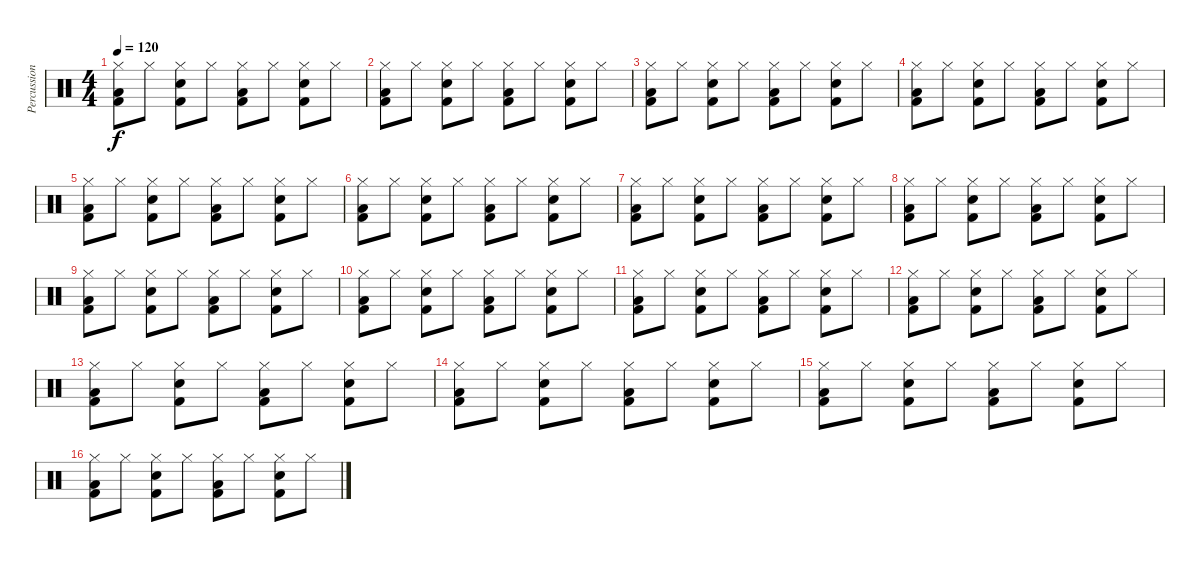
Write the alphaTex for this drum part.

\track ("Percussions" "Percussion") {instrument percussion}
\staff {score}
\articulation defaults
\ts (4 4)
\tempo 120
\clef neutral
\ks c
("Hi-Hat (closed)" "Low Floor Tom (hit)" "Kick (hit) 2").8{dy f} "Hi-Hat (closed)".8 ("Hi-Hat (closed)" "Snare (hit) 2" "Kick (hit) 2").8 "Hi-Hat (closed)".8 ("Hi-Hat (closed)" "Low Floor Tom (hit)" "Kick (hit) 2").8 "Hi-Hat (closed)".8 ("Hi-Hat (closed)" "Snare (hit) 2" "Kick (hit) 2").8 "Hi-Hat (closed)".8 |
("Hi-Hat (closed)" "Low Floor Tom (hit)" "Kick (hit) 2").8 "Hi-Hat (closed)".8 ("Hi-Hat (closed)" "Snare (hit) 2" "Kick (hit) 2").8 "Hi-Hat (closed)".8 ("Hi-Hat (closed)" "Low Floor Tom (hit)" "Kick (hit) 2").8 "Hi-Hat (closed)".8 ("Hi-Hat (closed)" "Snare (hit) 2" "Kick (hit) 2").8 "Hi-Hat (closed)".8 |
("Hi-Hat (closed)" "Low Floor Tom (hit)" "Kick (hit) 2").8 "Hi-Hat (closed)".8 ("Hi-Hat (closed)" "Snare (hit) 2" "Kick (hit) 2").8 "Hi-Hat (closed)".8 ("Hi-Hat (closed)" "Low Floor Tom (hit)" "Kick (hit) 2").8 "Hi-Hat (closed)".8 ("Hi-Hat (closed)" "Snare (hit) 2" "Kick (hit) 2").8 "Hi-Hat (closed)".8 |
("Hi-Hat (closed)" "Low Floor Tom (hit)" "Kick (hit) 2").8 "Hi-Hat (closed)".8 ("Hi-Hat (closed)" "Snare (hit) 2" "Kick (hit) 2").8 "Hi-Hat (closed)".8 ("Hi-Hat (closed)" "Low Floor Tom (hit)" "Kick (hit) 2").8 "Hi-Hat (closed)".8 ("Hi-Hat (closed)" "Snare (hit) 2" "Kick (hit) 2").8 "Hi-Hat (closed)".8 |
("Hi-Hat (closed)" "Low Floor Tom (hit)" "Kick (hit) 2").8 "Hi-Hat (closed)".8 ("Hi-Hat (closed)" "Snare (hit) 2" "Kick (hit) 2").8 "Hi-Hat (closed)".8 ("Hi-Hat (closed)" "Low Floor Tom (hit)" "Kick (hit) 2").8 "Hi-Hat (closed)".8 ("Hi-Hat (closed)" "Snare (hit) 2" "Kick (hit) 2").8 "Hi-Hat (closed)".8 |
("Hi-Hat (closed)" "Low Floor Tom (hit)" "Kick (hit) 2").8 "Hi-Hat (closed)".8 ("Hi-Hat (closed)" "Snare (hit) 2" "Kick (hit) 2").8 "Hi-Hat (closed)".8 ("Hi-Hat (closed)" "Low Floor Tom (hit)" "Kick (hit) 2").8 "Hi-Hat (closed)".8 ("Hi-Hat (closed)" "Snare (hit) 2" "Kick (hit) 2").8 "Hi-Hat (closed)".8 |
("Hi-Hat (closed)" "Low Floor Tom (hit)" "Kick (hit) 2").8 "Hi-Hat (closed)".8 ("Hi-Hat (closed)" "Snare (hit) 2" "Kick (hit) 2").8 "Hi-Hat (closed)".8 ("Hi-Hat (closed)" "Low Floor Tom (hit)" "Kick (hit) 2").8 "Hi-Hat (closed)".8 ("Hi-Hat (closed)" "Snare (hit) 2" "Kick (hit) 2").8 "Hi-Hat (closed)".8 |
("Hi-Hat (closed)" "Low Floor Tom (hit)" "Kick (hit) 2").8 "Hi-Hat (closed)".8 ("Hi-Hat (closed)" "Snare (hit) 2" "Kick (hit) 2").8 "Hi-Hat (closed)".8 ("Hi-Hat (closed)" "Low Floor Tom (hit)" "Kick (hit) 2").8 "Hi-Hat (closed)".8 ("Hi-Hat (closed)" "Snare (hit) 2" "Kick (hit) 2").8 "Hi-Hat (closed)".8 |
("Hi-Hat (closed)" "Low Floor Tom (hit)" "Kick (hit) 2").8 "Hi-Hat (closed)".8 ("Hi-Hat (closed)" "Snare (hit) 2" "Kick (hit) 2").8 "Hi-Hat (closed)".8 ("Hi-Hat (closed)" "Low Floor Tom (hit)" "Kick (hit) 2").8 "Hi-Hat (closed)".8 ("Hi-Hat (closed)" "Snare (hit) 2" "Kick (hit) 2").8 "Hi-Hat (closed)".8 |
("Hi-Hat (closed)" "Low Floor Tom (hit)" "Kick (hit) 2").8 "Hi-Hat (closed)".8 ("Hi-Hat (closed)" "Snare (hit) 2" "Kick (hit) 2").8 "Hi-Hat (closed)".8 ("Hi-Hat (closed)" "Low Floor Tom (hit)" "Kick (hit) 2").8 "Hi-Hat (closed)".8 ("Hi-Hat (closed)" "Snare (hit) 2" "Kick (hit) 2").8 "Hi-Hat (closed)".8 |
("Hi-Hat (closed)" "Low Floor Tom (hit)" "Kick (hit) 2").8 "Hi-Hat (closed)".8 ("Hi-Hat (closed)" "Snare (hit) 2" "Kick (hit) 2").8 "Hi-Hat (closed)".8 ("Hi-Hat (closed)" "Low Floor Tom (hit)" "Kick (hit) 2").8 "Hi-Hat (closed)".8 ("Hi-Hat (closed)" "Snare (hit) 2" "Kick (hit) 2").8 "Hi-Hat (closed)".8 |
("Hi-Hat (closed)" "Low Floor Tom (hit)" "Kick (hit) 2").8 "Hi-Hat (closed)".8 ("Hi-Hat (closed)" "Snare (hit) 2" "Kick (hit) 2").8 "Hi-Hat (closed)".8 ("Hi-Hat (closed)" "Low Floor Tom (hit)" "Kick (hit) 2").8 "Hi-Hat (closed)".8 ("Hi-Hat (closed)" "Snare (hit) 2" "Kick (hit) 2").8 "Hi-Hat (closed)".8 |
("Hi-Hat (closed)" "Low Floor Tom (hit)" "Kick (hit) 2").8 "Hi-Hat (closed)".8 ("Hi-Hat (closed)" "Snare (hit) 2" "Kick (hit) 2").8 "Hi-Hat (closed)".8 ("Hi-Hat (closed)" "Low Floor Tom (hit)" "Kick (hit) 2").8 "Hi-Hat (closed)".8 ("Hi-Hat (closed)" "Snare (hit) 2" "Kick (hit) 2").8 "Hi-Hat (closed)".8 |
("Hi-Hat (closed)" "Low Floor Tom (hit)" "Kick (hit) 2").8 "Hi-Hat (closed)".8 ("Hi-Hat (closed)" "Snare (hit) 2" "Kick (hit) 2").8 "Hi-Hat (closed)".8 ("Hi-Hat (closed)" "Low Floor Tom (hit)" "Kick (hit) 2").8 "Hi-Hat (closed)".8 ("Hi-Hat (closed)" "Snare (hit) 2" "Kick (hit) 2").8 "Hi-Hat (closed)".8 |
("Hi-Hat (closed)" "Low Floor Tom (hit)" "Kick (hit) 2").8 "Hi-Hat (closed)".8 ("Hi-Hat (closed)" "Snare (hit) 2" "Kick (hit) 2").8 "Hi-Hat (closed)".8 ("Hi-Hat (closed)" "Low Floor Tom (hit)" "Kick (hit) 2").8 "Hi-Hat (closed)".8 ("Hi-Hat (closed)" "Snare (hit) 2" "Kick (hit) 2").8 "Hi-Hat (closed)".8 |
("Hi-Hat (closed)" "Low Floor Tom (hit)" "Kick (hit) 2").8 "Hi-Hat (closed)".8 ("Hi-Hat (closed)" "Snare (hit) 2" "Kick (hit) 2").8 "Hi-Hat (closed)".8 ("Hi-Hat (closed)" "Low Floor Tom (hit)" "Kick (hit) 2").8 "Hi-Hat (closed)".8 ("Hi-Hat (closed)" "Snare (hit) 2" "Kick (hit) 2").8 "Hi-Hat (closed)".8
